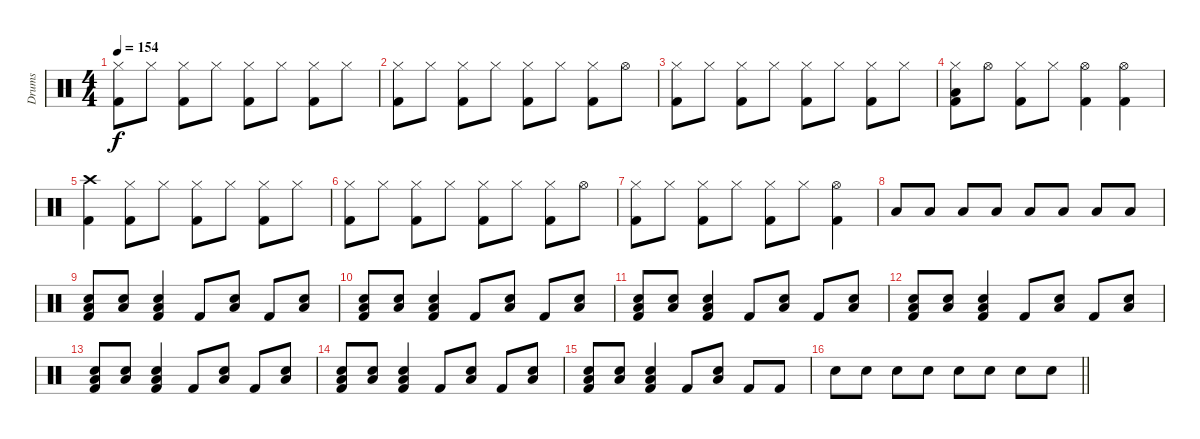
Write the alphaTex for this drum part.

\track ("Drums" "Drums") {instrument percussion}
\staff {score}
\articulation defaults
\ts (4 4)
\tempo 154
\clef neutral
\ks c
("Hi-Hat (closed)" "Kick (hit) 2").8{dy f} "Hi-Hat (closed)".8 ("Hi-Hat (closed)" "Kick (hit) 2").8 "Hi-Hat (closed)".8 ("Hi-Hat (closed)" "Kick (hit) 2").8 "Hi-Hat (closed)".8 ("Hi-Hat (closed)" "Kick (hit) 2").8 "Hi-Hat (closed)".8 |
("Hi-Hat (closed)" "Kick (hit) 2").8 "Hi-Hat (closed)".8 ("Hi-Hat (closed)" "Kick (hit) 2").8 "Hi-Hat (closed)".8 ("Hi-Hat (closed)" "Kick (hit) 2").8 "Hi-Hat (closed)".8 ("Hi-Hat (closed)" "Kick (hit) 2").8 "Hi-Hat (open)".8 |
("Hi-Hat (closed)" "Kick (hit) 2").8 "Hi-Hat (closed)".8 ("Hi-Hat (closed)" "Kick (hit) 2").8 "Hi-Hat (closed)".8 ("Hi-Hat (closed)" "Kick (hit) 2").8 "Hi-Hat (closed)".8 ("Hi-Hat (closed)" "Kick (hit) 2").8 "Hi-Hat (closed)".8 |
("Hi-Hat (closed)" "Low Tom (hit)" "Kick (hit) 2").8 "Hi-Hat (open)".8 ("Hi-Hat (closed)" "Kick (hit) 2").8 "Hi-Hat (closed)".8 ("Hi-Hat (open)" "Kick (hit) 2").4 ("Hi-Hat (open)" "Kick (hit) 2").4 |
("Crash high (hit)" "Kick (hit) 2").4 ("Hi-Hat (closed)" "Kick (hit) 2").8 "Hi-Hat (closed)".8 ("Hi-Hat (closed)" "Kick (hit) 2").8 "Hi-Hat (closed)".8 ("Hi-Hat (closed)" "Kick (hit) 2").8 "Hi-Hat (closed)".8 |
("Hi-Hat (closed)" "Kick (hit) 2").8 "Hi-Hat (closed)".8 ("Hi-Hat (closed)" "Kick (hit) 2").8 "Hi-Hat (closed)".8 ("Hi-Hat (closed)" "Kick (hit) 2").8 "Hi-Hat (closed)".8 ("Hi-Hat (closed)" "Kick (hit) 2").8 "Hi-Hat (open)".8 |
("Hi-Hat (closed)" "Kick (hit) 2").8 "Hi-Hat (closed)".8 ("Hi-Hat (closed)" "Kick (hit) 2").8 "Hi-Hat (closed)".8 ("Hi-Hat (closed)" "Kick (hit) 2").8 "Hi-Hat (closed)".8 ("Hi-Hat (open)" "Kick (hit) 2").4 |
"Low Tom (hit)".8 "Low Tom (hit)".8 "Low Tom (hit)".8 "Low Tom (hit)".8 "Low Tom (hit)".8 "Low Tom (hit)".8 "Low Tom (hit)".8 "Low Tom (hit)".8 |
("Snare (hit) 2" "Low Tom (hit)" "Kick (hit) 2").8 ("Snare (hit) 2" "Low Tom (hit)").8 ("Snare (hit) 2" "Low Tom (hit)" "Kick (hit) 2").4 "Kick (hit) 2".8 ("Snare (hit) 2" "Low Tom (hit)").8 "Kick (hit) 2".8 ("Snare (hit) 2" "Low Tom (hit)").8 |
("Snare (hit) 2" "Low Tom (hit)" "Kick (hit) 2").8 ("Snare (hit) 2" "Low Tom (hit)").8 ("Snare (hit) 2" "Low Tom (hit)" "Kick (hit) 2").4 "Kick (hit) 2".8 ("Snare (hit) 2" "Low Tom (hit)").8 "Kick (hit) 2".8 ("Snare (hit) 2" "Low Tom (hit)").8 |
("Snare (hit) 2" "Low Tom (hit)" "Kick (hit) 2").8 ("Snare (hit) 2" "Low Tom (hit)").8 ("Snare (hit) 2" "Low Tom (hit)" "Kick (hit) 2").4 "Kick (hit) 2".8 ("Snare (hit) 2" "Low Tom (hit)").8 "Kick (hit) 2".8 ("Snare (hit) 2" "Low Tom (hit)").8 |
("Snare (hit) 2" "Low Tom (hit)" "Kick (hit) 2").8 ("Snare (hit) 2" "Low Tom (hit)").8 ("Snare (hit) 2" "Low Tom (hit)" "Kick (hit) 2").4 "Kick (hit) 2".8 ("Snare (hit) 2" "Low Tom (hit)").8 "Kick (hit) 2".8 ("Snare (hit) 2" "Low Tom (hit)").8 |
("Snare (hit) 2" "Low Tom (hit)" "Kick (hit) 2").8 ("Snare (hit) 2" "Low Tom (hit)").8 ("Snare (hit) 2" "Low Tom (hit)" "Kick (hit) 2").4 "Kick (hit) 2".8 ("Snare (hit) 2" "Low Tom (hit)").8 "Kick (hit) 2".8 ("Snare (hit) 2" "Low Tom (hit)").8 |
("Snare (hit) 2" "Low Tom (hit)" "Kick (hit) 2").8 ("Snare (hit) 2" "Low Tom (hit)").8 ("Snare (hit) 2" "Low Tom (hit)" "Kick (hit) 2").4 "Kick (hit) 2".8 ("Snare (hit) 2" "Low Tom (hit)").8 "Kick (hit) 2".8 ("Snare (hit) 2" "Low Tom (hit)").8 |
("Snare (hit) 2" "Low Tom (hit)" "Kick (hit) 2").8 ("Snare (hit) 2" "Low Tom (hit)").8 ("Snare (hit) 2" "Low Tom (hit)" "Kick (hit) 2").4 "Kick (hit) 2".8 ("Snare (hit) 2" "Low Tom (hit)").8 "Kick (hit) 2".8 "Kick (hit) 2".8 |
\barLineRight lightlight "Snare (hit) 2".8 "Snare (hit) 2".8 "Snare (hit) 2".8 "Snare (hit) 2".8 "Snare (hit) 2".8 "Snare (hit) 2".8 "Snare (hit) 2".8 "Snare (hit) 2".8
